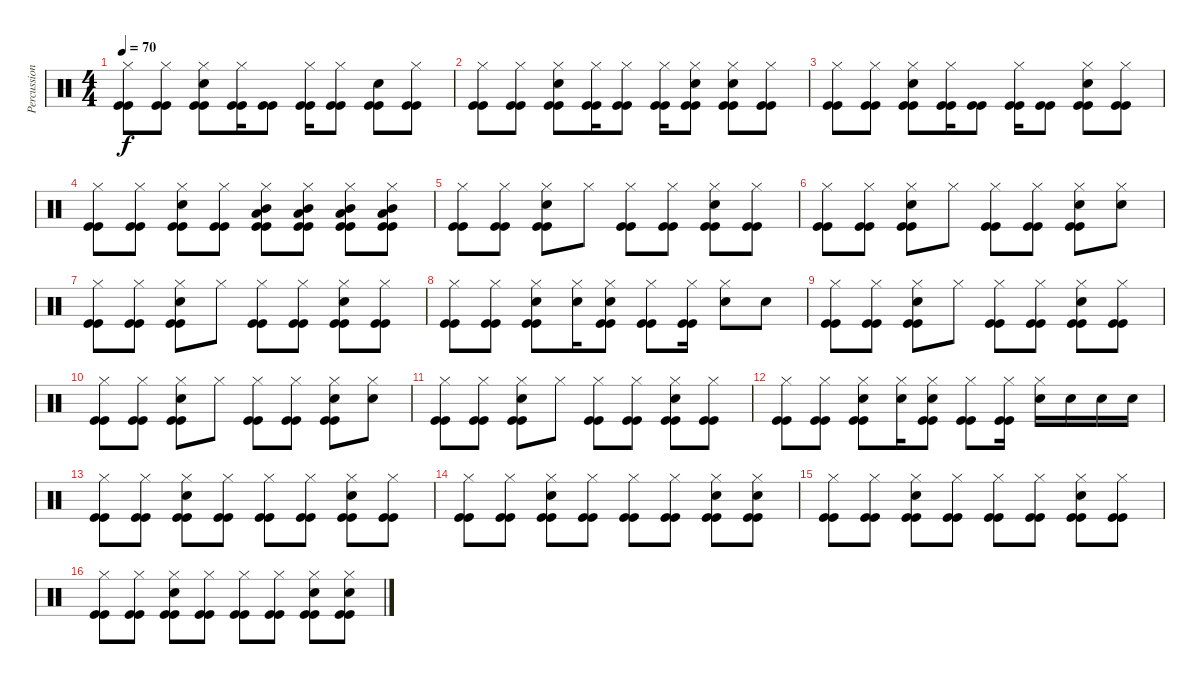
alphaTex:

\track ("Percussion" "Percussion") {instrument percussion}
\staff {score}
\articulation defaults
\ts (4 4)
\tempo 70
\clef neutral
\ks c
("Hi-Hat (closed)" "Kick (hit)" "Kick (hit)").8{dy f} ("Hi-Hat (closed)" "Kick (hit)" "Kick (hit)").8 ("Hi-Hat (closed)" "Kick (hit)" "Kick (hit)" "Electric Snare (hit)").8 ("Hi-Hat (closed)" "Kick (hit)" "Kick (hit)").16 ("Kick (hit)" "Kick (hit)").8 ("Hi-Hat (closed)" "Kick (hit)" "Kick (hit)").16 ("Hi-Hat (closed)" "Kick (hit)" "Kick (hit)").8 ("Kick (hit)" "Kick (hit)" "Electric Snare (hit)").8 ("Hi-Hat (closed)" "Kick (hit)" "Kick (hit)").8 |
("Hi-Hat (closed)" "Kick (hit)" "Kick (hit)").8 ("Hi-Hat (closed)" "Kick (hit)" "Kick (hit)").8 ("Hi-Hat (closed)" "Kick (hit)" "Kick (hit)" "Electric Snare (hit)").8 ("Hi-Hat (closed)" "Kick (hit)" "Kick (hit)").16 ("Hi-Hat (closed)" "Kick (hit)" "Kick (hit)").8 ("Hi-Hat (closed)" "Kick (hit)" "Kick (hit)").16 ("Hi-Hat (closed)" "Kick (hit)" "Kick (hit)" "Electric Snare (hit)").8 ("Hi-Hat (closed)" "Kick (hit)" "Kick (hit)" "Electric Snare (hit)").8 ("Hi-Hat (closed)" "Kick (hit)" "Kick (hit)").8 |
("Hi-Hat (closed)" "Kick (hit)" "Kick (hit)").8 ("Hi-Hat (closed)" "Kick (hit)" "Kick (hit)").8 ("Hi-Hat (closed)" "Kick (hit)" "Kick (hit)" "Electric Snare (hit)").8 ("Hi-Hat (closed)" "Kick (hit)" "Kick (hit)").16 ("Kick (hit)" "Kick (hit)").8 ("Hi-Hat (closed)" "Kick (hit)" "Kick (hit)").16 ("Kick (hit)" "Kick (hit)").8 ("Hi-Hat (closed)" "Kick (hit)" "Kick (hit)" "Electric Snare (hit)").8 ("Hi-Hat (closed)" "Kick (hit)" "Kick (hit)").8 |
("Hi-Hat (closed)" "Kick (hit)" "Kick (hit)").8 ("Hi-Hat (closed)" "Kick (hit)" "Kick (hit)").8 ("Hi-Hat (closed)" "Kick (hit)" "Kick (hit)" "Electric Snare (hit)").8 ("Hi-Hat (closed)" "Kick (hit)" "Kick (hit)").8 ("Hi-Hat (closed)" "Kick (hit)" "Kick (hit)" "Low Tom (hit)" "Mid Tom (hit)").8 ("Hi-Hat (closed)" "Kick (hit)" "Kick (hit)" "Low Tom (hit)" "Mid Tom (hit)").8 ("Hi-Hat (closed)" "Kick (hit)" "Kick (hit)" "Low Tom (hit)" "Mid Tom (hit)").8 ("Hi-Hat (closed)" "Kick (hit)" "Kick (hit)" "Low Tom (hit)" "Mid Tom (hit)").8 |
("Hi-Hat (closed)" "Kick (hit)" "Kick (hit)").8 ("Hi-Hat (closed)" "Kick (hit)" "Kick (hit)").8 ("Hi-Hat (closed)" "Kick (hit)" "Kick (hit)" "Electric Snare (hit)").8 "Hi-Hat (closed)".8 ("Hi-Hat (closed)" "Kick (hit)" "Kick (hit)").8 ("Hi-Hat (closed)" "Kick (hit)" "Kick (hit)").8 ("Hi-Hat (closed)" "Kick (hit)" "Kick (hit)" "Electric Snare (hit)").8 ("Hi-Hat (closed)" "Kick (hit)" "Kick (hit)").8 |
("Hi-Hat (closed)" "Kick (hit)" "Kick (hit)").8 ("Hi-Hat (closed)" "Kick (hit)" "Kick (hit)").8 ("Hi-Hat (closed)" "Kick (hit)" "Kick (hit)" "Electric Snare (hit)").8 "Hi-Hat (closed)".8 ("Hi-Hat (closed)" "Kick (hit)" "Kick (hit)").8 ("Hi-Hat (closed)" "Kick (hit)" "Kick (hit)").8 ("Hi-Hat (closed)" "Kick (hit)" "Kick (hit)" "Electric Snare (hit)").8 ("Hi-Hat (closed)" "Electric Snare (hit)").8 |
("Hi-Hat (closed)" "Kick (hit)" "Kick (hit)").8 ("Hi-Hat (closed)" "Kick (hit)" "Kick (hit)").8 ("Hi-Hat (closed)" "Kick (hit)" "Kick (hit)" "Electric Snare (hit)").8 "Hi-Hat (closed)".8 ("Hi-Hat (closed)" "Kick (hit)" "Kick (hit)").8 ("Hi-Hat (closed)" "Kick (hit)" "Kick (hit)").8 ("Hi-Hat (closed)" "Kick (hit)" "Kick (hit)" "Electric Snare (hit)").8 ("Hi-Hat (closed)" "Kick (hit)" "Kick (hit)").8 |
("Hi-Hat (closed)" "Kick (hit)" "Kick (hit)").8 ("Hi-Hat (closed)" "Kick (hit)" "Kick (hit)").8 ("Hi-Hat (closed)" "Kick (hit)" "Kick (hit)" "Electric Snare (hit)").8 ("Hi-Hat (closed)" "Electric Snare (hit)").16 ("Hi-Hat (closed)" "Kick (hit)" "Kick (hit)" "Electric Snare (hit)").8 ("Hi-Hat (closed)" "Kick (hit)" "Kick (hit)").8 ("Hi-Hat (closed)" "Kick (hit)" "Kick (hit)").16 ("Hi-Hat (closed)" "Electric Snare (hit)").8 "Electric Snare (hit)".8 |
("Hi-Hat (closed)" "Kick (hit)" "Kick (hit)").8 ("Hi-Hat (closed)" "Kick (hit)" "Kick (hit)").8 ("Hi-Hat (closed)" "Kick (hit)" "Kick (hit)" "Electric Snare (hit)").8 "Hi-Hat (closed)".8 ("Hi-Hat (closed)" "Kick (hit)" "Kick (hit)").8 ("Hi-Hat (closed)" "Kick (hit)" "Kick (hit)").8 ("Hi-Hat (closed)" "Kick (hit)" "Kick (hit)" "Electric Snare (hit)").8 ("Hi-Hat (closed)" "Kick (hit)" "Kick (hit)").8 |
("Hi-Hat (closed)" "Kick (hit)" "Kick (hit)").8 ("Hi-Hat (closed)" "Kick (hit)" "Kick (hit)").8 ("Hi-Hat (closed)" "Kick (hit)" "Kick (hit)" "Electric Snare (hit)").8 "Hi-Hat (closed)".8 ("Hi-Hat (closed)" "Kick (hit)" "Kick (hit)").8 ("Hi-Hat (closed)" "Kick (hit)" "Kick (hit)").8 ("Hi-Hat (closed)" "Kick (hit)" "Kick (hit)" "Electric Snare (hit)").8 ("Hi-Hat (closed)" "Electric Snare (hit)").8 |
("Hi-Hat (closed)" "Kick (hit)" "Kick (hit)").8 ("Hi-Hat (closed)" "Kick (hit)" "Kick (hit)").8 ("Hi-Hat (closed)" "Kick (hit)" "Kick (hit)" "Electric Snare (hit)").8 "Hi-Hat (closed)".8 ("Hi-Hat (closed)" "Kick (hit)" "Kick (hit)").8 ("Hi-Hat (closed)" "Kick (hit)" "Kick (hit)").8 ("Hi-Hat (closed)" "Kick (hit)" "Kick (hit)" "Electric Snare (hit)").8 ("Hi-Hat (closed)" "Kick (hit)" "Kick (hit)").8 |
("Hi-Hat (closed)" "Kick (hit)" "Kick (hit)").8 ("Hi-Hat (closed)" "Kick (hit)" "Kick (hit)").8 ("Hi-Hat (closed)" "Kick (hit)" "Kick (hit)" "Electric Snare (hit)").8 ("Hi-Hat (closed)" "Electric Snare (hit)").16 ("Hi-Hat (closed)" "Kick (hit)" "Kick (hit)" "Electric Snare (hit)").8 ("Hi-Hat (closed)" "Kick (hit)" "Kick (hit)").8 ("Hi-Hat (closed)" "Kick (hit)" "Kick (hit)").16 ("Hi-Hat (closed)" "Electric Snare (hit)").16 "Electric Snare (hit)".16 "Electric Snare (hit)".16 "Electric Snare (hit)".16 |
("Hi-Hat (closed)" "Kick (hit)" "Kick (hit)").8 ("Hi-Hat (closed)" "Kick (hit)" "Kick (hit)").8 ("Hi-Hat (closed)" "Kick (hit)" "Kick (hit)" "Electric Snare (hit)").8 ("Hi-Hat (closed)" "Kick (hit)" "Kick (hit)").8 ("Hi-Hat (closed)" "Kick (hit)" "Kick (hit)").8 ("Hi-Hat (closed)" "Kick (hit)" "Kick (hit)").8 ("Hi-Hat (closed)" "Kick (hit)" "Kick (hit)" "Electric Snare (hit)").8 ("Hi-Hat (closed)" "Kick (hit)" "Kick (hit)").8 |
("Hi-Hat (closed)" "Kick (hit)" "Kick (hit)").8 ("Hi-Hat (closed)" "Kick (hit)" "Kick (hit)").8 ("Hi-Hat (closed)" "Kick (hit)" "Kick (hit)" "Electric Snare (hit)").8 ("Hi-Hat (closed)" "Kick (hit)" "Kick (hit)").8 ("Hi-Hat (closed)" "Kick (hit)" "Kick (hit)").8 ("Hi-Hat (closed)" "Kick (hit)" "Kick (hit)").8 ("Hi-Hat (closed)" "Kick (hit)" "Kick (hit)" "Electric Snare (hit)").8 ("Hi-Hat (closed)" "Kick (hit)" "Kick (hit)" "Electric Snare (hit)").8 |
("Hi-Hat (closed)" "Kick (hit)" "Kick (hit)").8 ("Hi-Hat (closed)" "Kick (hit)" "Kick (hit)").8 ("Hi-Hat (closed)" "Kick (hit)" "Kick (hit)" "Electric Snare (hit)").8 ("Hi-Hat (closed)" "Kick (hit)" "Kick (hit)").8 ("Hi-Hat (closed)" "Kick (hit)" "Kick (hit)").8 ("Hi-Hat (closed)" "Kick (hit)" "Kick (hit)").8 ("Hi-Hat (closed)" "Kick (hit)" "Kick (hit)" "Electric Snare (hit)").8 ("Hi-Hat (closed)" "Kick (hit)" "Kick (hit)").8 |
("Hi-Hat (closed)" "Kick (hit)" "Kick (hit)").8 ("Hi-Hat (closed)" "Kick (hit)" "Kick (hit)").8 ("Hi-Hat (closed)" "Kick (hit)" "Kick (hit)" "Electric Snare (hit)").8 ("Hi-Hat (closed)" "Kick (hit)" "Kick (hit)").8 ("Hi-Hat (closed)" "Kick (hit)" "Kick (hit)").8 ("Hi-Hat (closed)" "Kick (hit)" "Kick (hit)").8 ("Hi-Hat (closed)" "Kick (hit)" "Kick (hit)" "Electric Snare (hit)").8 ("Hi-Hat (closed)" "Kick (hit)" "Kick (hit)" "Electric Snare (hit)").8
